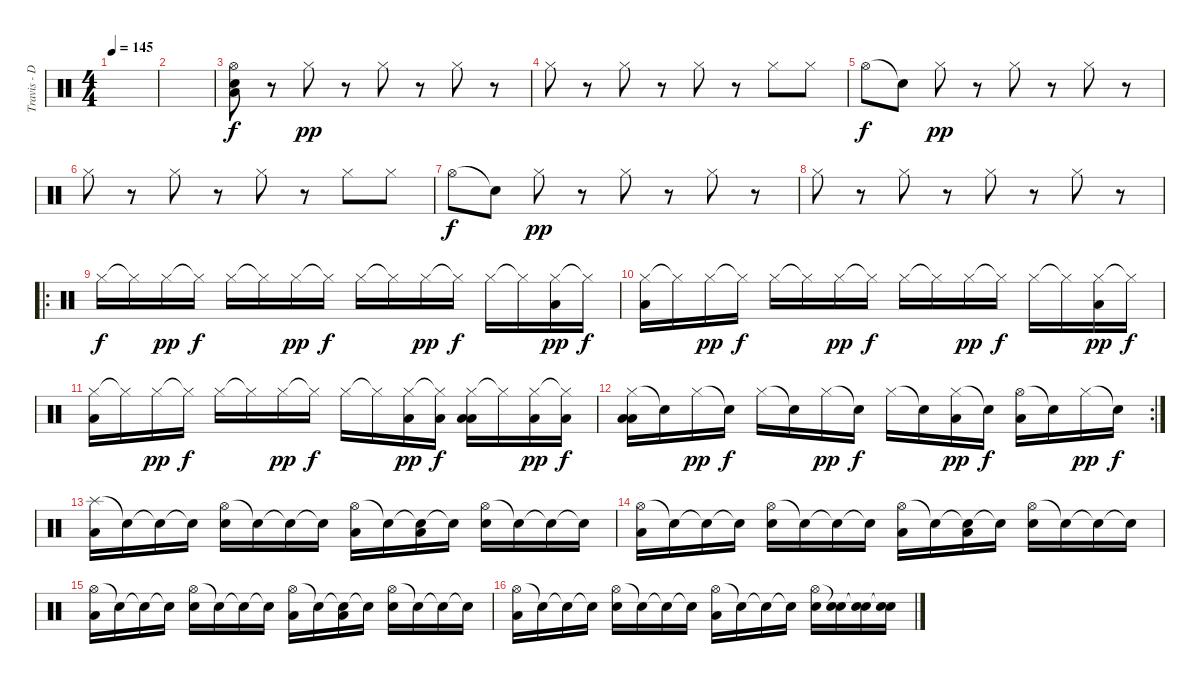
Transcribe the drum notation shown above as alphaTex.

\track ("Travis - Drums" "Travis - D") {instrument percussion}
\staff {score}
\articulation defaults
\ts (4 4)
\tempo 145
\clef neutral
\ks c
|
|
("Hi-Hat (open)" "Electric Snare (hit)" "Low Floor Tom (hit)").8 r.8 "Hi-Hat (closed)".8{dy pp} r.8 "Hi-Hat (closed)".8 r.8 "Hi-Hat (closed)".8 r.8 |
"Hi-Hat (closed)".8 r.8 "Hi-Hat (closed)".8 r.8 "Hi-Hat (closed)".8 r.8 "Hi-Hat (closed)".8 "Hi-Hat (closed)".8 |
"Hi-Hat (open)".8{dy f} "Snare (hit)"{t}.8 "Hi-Hat (closed)".8{dy pp} r.8 "Hi-Hat (closed)".8 r.8 "Hi-Hat (closed)".8 r.8 |
"Hi-Hat (closed)".8 r.8 "Hi-Hat (closed)".8 r.8 "Hi-Hat (closed)".8 r.8 "Hi-Hat (closed)".8 "Hi-Hat (closed)".8 |
"Hi-Hat (open)".8{dy f} "Snare (hit)"{t}.8 "Hi-Hat (closed)".8{dy pp} r.8 "Hi-Hat (closed)".8 r.8 "Hi-Hat (closed)".8 r.8 |
"Hi-Hat (closed)".8 r.8 "Hi-Hat (closed)".8 r.8 "Hi-Hat (closed)".8 r.8 "Hi-Hat (closed)".8 r.8 |
\ro "Hi-Hat (closed)".16{dy f} "Hi-Hat (closed)"{t}.16 "Hi-Hat (closed)".16{dy pp} "Hi-Hat (closed)"{t}.16{dy f} "Hi-Hat (closed)".16 "Hi-Hat (closed)"{t}.16 "Hi-Hat (closed)".16{dy pp} "Hi-Hat (closed)"{t}.16{dy f} "Hi-Hat (closed)".16 "Hi-Hat (closed)"{t}.16 "Hi-Hat (closed)".16{dy pp} "Hi-Hat (closed)"{t}.16{dy f} "Hi-Hat (closed)".16 "Hi-Hat (closed)"{t}.16
("Hi-Hat (closed)" "Low Floor Tom (hit)").16{dy pp} "Hi-Hat (closed)"{t}.16{dy f} |
("Hi-Hat (closed)" "Low Floor Tom (hit)").16 "Hi-Hat (closed)"{t}.16 "Hi-Hat (closed)".16{dy pp} "Hi-Hat (closed)"{t}.16{dy f} "Hi-Hat (closed)".16 "Hi-Hat (closed)"{t}.16 "Hi-Hat (closed)".16{dy pp} "Hi-Hat (closed)"{t}.16{dy f} "Hi-Hat (closed)".16 "Hi-Hat (closed)"{t}.16 "Hi-Hat (closed)".16{dy pp} "Hi-Hat (closed)"{t}.16{dy f} "Hi-Hat (closed)".16 "Hi-Hat (closed)"{t}.16 ("Hi-Hat (closed)" "Low Floor Tom (hit)").16{dy pp} "Hi-Hat (closed)"{t}.16{dy f} |
("Hi-Hat (closed)" "Low Floor Tom (hit)").16 "Hi-Hat (closed)"{t}.16 "Hi-Hat (closed)".16{dy pp} "Hi-Hat (closed)"{t}.16{dy f} "Hi-Hat (closed)".16 "Hi-Hat (closed)"{t}.16 "Hi-Hat (closed)".16{dy pp} "Hi-Hat (closed)"{t}.16{dy f} "Hi-Hat (closed)".16 "Hi-Hat (closed)"{t}.16 ("Hi-Hat (closed)" "Low Floor Tom (hit)").16{dy pp} ("Hi-Hat (closed)"{t} "Low Floor Tom (hit)").16{dy f} ("Hi-Hat (closed)" "Low Tom (hit)" "Low Floor Tom (hit)").16 "Hi-Hat (closed)"{t}.16 ("Hi-Hat (closed)" "Low Floor Tom (hit)").16{dy pp} ("Hi-Hat (closed)"{t} "Low Floor Tom (hit)").16{dy f} |
\rc 2
("Hi-Hat (closed)" "Low Tom (hit)" "Low Floor Tom (hit)").16 "Snare (hit)"{t}.16 "Hi-Hat (closed)".16{dy pp} "Snare (hit)"{t}.16{dy f} "Hi-Hat (closed)".16 "Snare (hit)"{t}.16 "Hi-Hat (closed)".16{dy pp} "Snare (hit)"{t}.16{dy f} "Hi-Hat (closed)".16 "Snare (hit)"{t}.16 ("Hi-Hat (closed)" "Low Floor Tom (hit)").16{dy pp} "Snare (hit)"{t}.16{dy f} ("Hi-Hat (open)" "Low Floor Tom (hit)").16 "Snare (hit)"{t}.16 "Hi-Hat (closed)".16{dy pp} "Snare (hit)"{t}.16{dy f} |
("Splash (hit)" "Low Floor Tom (hit)").16 "Snare (hit)"{t}.16 "Snare (hit)"{t}.16 "Snare (hit)"{t}.16 ("Hi-Hat (open)" "Electric Snare (hit)").16 "Snare (hit)"{t}.16 "Snare (hit)"{t}.16 "Snare (hit)"{t}.16 ("Hi-Hat (open)" "Low Floor Tom (hit)").16 "Snare (hit)"{t}.16 ("Snare (hit)"{t} "Low Floor Tom (hit)").16 "Snare (hit)"{t}.16 ("Hi-Hat (open)" "Electric Snare (hit)").16 "Snare (hit)"{t}.16 "Snare (hit)"{t}.16 "Snare (hit)"{t}.16 |
("Hi-Hat (open)" "Low Floor Tom (hit)").16 "Snare (hit)"{t}.16 "Snare (hit)"{t}.16 "Snare (hit)"{t}.16 ("Hi-Hat (open)" "Electric Snare (hit)").16 "Snare (hit)"{t}.16 "Snare (hit)"{t}.16 "Snare (hit)"{t}.16 ("Hi-Hat (open)" "Low Floor Tom (hit)").16 "Snare (hit)"{t}.16 ("Snare (hit)"{t} "Low Floor Tom (hit)").16 "Snare (hit)"{t}.16 ("Hi-Hat (open)" "Electric Snare (hit)").16 "Snare (hit)"{t}.16 "Snare (hit)"{t}.16 "Snare (hit)"{t}.16 |
("Hi-Hat (open)" "Low Floor Tom (hit)").16 "Snare (hit)"{t}.16 "Snare (hit)"{t}.16 "Snare (hit)"{t}.16 ("Hi-Hat (open)" "Electric Snare (hit)").16 "Snare (hit)"{t}.16 "Snare (hit)"{t}.16 "Snare (hit)"{t}.16 ("Hi-Hat (open)" "Low Floor Tom (hit)").16 "Snare (hit)"{t}.16 ("Snare (hit)"{t} "Low Floor Tom (hit)").16 "Snare (hit)"{t}.16 ("Hi-Hat (open)" "Electric Snare (hit)").16 "Snare (hit)"{t}.16 "Snare (hit)"{t}.16 "Snare (hit)"{t}.16 |
("Hi-Hat (open)" "Low Floor Tom (hit)").16 "Snare (hit)"{t}.16 "Snare (hit)"{t}.16 "Snare (hit)"{t}.16 ("Hi-Hat (open)" "Electric Snare (hit)").16 "Snare (hit)"{t}.16 "Snare (hit)"{t}.16 "Snare (hit)"{t}.16 ("Hi-Hat (open)" "Low Floor Tom (hit)").16 "Snare (hit)"{t}.16 "Snare (hit)"{t}.16 "Snare (hit)"{t}.16 ("Hi-Hat (open)" "Electric Snare (hit)").16 ("Snare (hit)"{t} "Electric Snare (hit)").16 ("Snare (hit)"{t} "Electric Snare (hit)").16 ("Snare (hit)"{t} "Electric Snare (hit)").16
